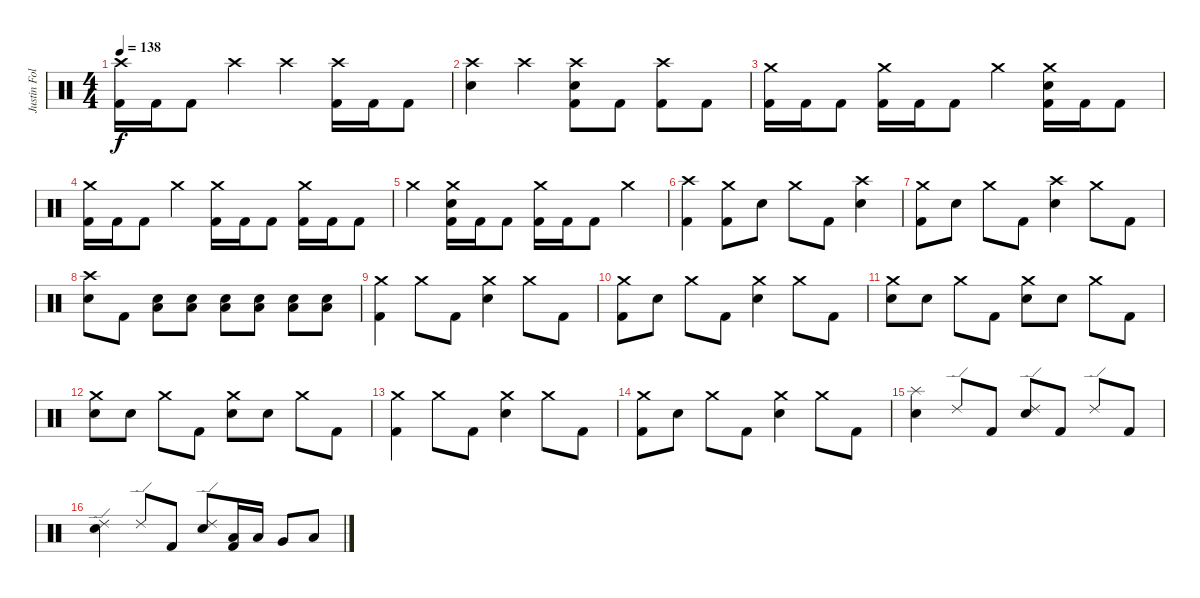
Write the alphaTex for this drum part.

\track ("Justin Foley" "Justin Fol") {instrument percussion}
\staff {score}
\articulation defaults
\ts (4 4)
\tempo 138
\clef neutral
\ks c
("Crash high (hit)" "Kick (hit) 2").16{dy f} "Kick (hit) 2".16 "Kick (hit) 2".8 "Crash high (hit)".4 "Crash high (hit)".4 ("Crash high (hit)" "Kick (hit) 2").16 "Kick (hit) 2".16 "Kick (hit) 2".8 |
("Crash high (hit)" "Electric Snare (hit)").4 "Crash high (hit)".4 ("Crash high (hit)" "Electric Snare (hit)" "Kick (hit) 2").8 "Kick (hit) 2".8 ("Crash high (hit)" "Kick (hit) 2").8 "Kick (hit) 2".8 |
("Crash medium (hit)" "Kick (hit) 2").16 "Kick (hit) 2".16 "Kick (hit) 2".8 ("Crash medium (hit)" "Kick (hit) 2").16 "Kick (hit) 2".16 "Kick (hit) 2".8 "Crash medium (hit)".4 ("Crash medium (hit)" "Electric Snare (hit)" "Kick (hit) 2").16 "Kick (hit) 2".16 "Kick (hit) 2".8 |
("Crash medium (hit)" "Kick (hit) 2").16 "Kick (hit) 2".16 "Kick (hit) 2".8 "Crash medium (hit)".4 ("Crash medium (hit)" "Kick (hit) 2").16 "Kick (hit) 2".16 "Kick (hit) 2".8 ("Crash medium (hit)" "Kick (hit) 2").16 "Kick (hit) 2".16 "Kick (hit) 2".8 |
"Crash medium (hit)".4 ("Crash medium (hit)" "Electric Snare (hit)" "Kick (hit) 2").16 "Kick (hit) 2".16 "Kick (hit) 2".8 ("Crash medium (hit)" "Kick (hit) 2").16 "Kick (hit) 2".16 "Kick (hit) 2".8 "Crash medium (hit)".4 |
("Crash high (hit)" "Kick (hit) 2").4 ("Crash medium (hit)" "Kick (hit) 2").8 "Electric Snare (hit)".8 "Crash medium (hit)".8 "Kick (hit) 2".8 ("Crash high (hit)" "Electric Snare (hit)").4 |
("Crash medium (hit)" "Kick (hit) 2").8 "Electric Snare (hit)".8 "Crash medium (hit)".8 "Kick (hit) 2".8 ("Crash high (hit)" "Electric Snare (hit)").4 "Crash medium (hit)".8 "Kick (hit) 2".8 |
("Crash high (hit)" "Electric Snare (hit)").8 "Kick (hit) 2".8 ("Electric Snare (hit)" "Low Floor Tom (hit)").8 ("Electric Snare (hit)" "Low Floor Tom (hit)").8 ("Electric Snare (hit)" "Low Floor Tom (hit)").8 ("Electric Snare (hit)" "Low Floor Tom (hit)").8 ("Electric Snare (hit)" "Low Floor Tom (hit)").8 ("Electric Snare (hit)" "Low Floor Tom (hit)").8 |
("Crash medium (hit)" "Kick (hit) 2").4 "Crash medium (hit)".8 "Kick (hit) 2".8 ("Crash medium (hit)" "Electric Snare (hit)").4 "Crash medium (hit)".8 "Kick (hit) 2".8 |
("Crash medium (hit)" "Kick (hit) 2").8 "Electric Snare (hit)".8 "Crash medium (hit)".8 "Kick (hit) 2".8 ("Crash medium (hit)" "Electric Snare (hit)").4 "Crash medium (hit)".8 "Kick (hit) 2".8 |
("Crash medium (hit)" "Electric Snare (hit)").8 "Electric Snare (hit)".8 "Crash medium (hit)".8 "Kick (hit) 2".8 ("Crash medium (hit)" "Electric Snare (hit)").8 "Electric Snare (hit)".8 "Crash medium (hit)".8 "Kick (hit) 2".8 |
("Crash medium (hit)" "Electric Snare (hit)").8 "Electric Snare (hit)".8 "Crash medium (hit)".8 "Kick (hit) 2".8 ("Crash medium (hit)" "Electric Snare (hit)").8 "Electric Snare (hit)".8 "Crash medium (hit)".8 "Kick (hit) 2".8 |
("Crash medium (hit)" "Kick (hit) 2").4 "Crash medium (hit)".8 "Kick (hit) 2".8 ("Crash medium (hit)" "Electric Snare (hit)").4 "Crash medium (hit)".8 "Kick (hit) 2".8 |
("Crash medium (hit)" "Kick (hit) 2").8 "Electric Snare (hit)".8 "Crash medium (hit)".8 "Kick (hit) 2".8 ("Crash medium (hit)" "Electric Snare (hit)").4 "Crash medium (hit)".8 "Kick (hit) 2".8 |
("Splash (hit)" "Electric Snare (hit)").4 "Ride (edge) 2".8 "Kick (hit) 2".8 ("Ride (edge) 2" "Electric Snare (hit)").8 "Kick (hit) 2".8 "Ride (edge) 2".8 "Kick (hit) 2".8 |
("Ride (edge) 2" "Electric Snare (hit)").4 "Ride (edge) 2".8 "Kick (hit) 2".8 ("Ride (edge) 2" "Electric Snare (hit)").8 ("Low Tom (hit)" "Kick (hit) 2").16 "Low Tom (hit)".16 "Very Low Tom (hit)".8 "Low Floor Tom (hit)".8
